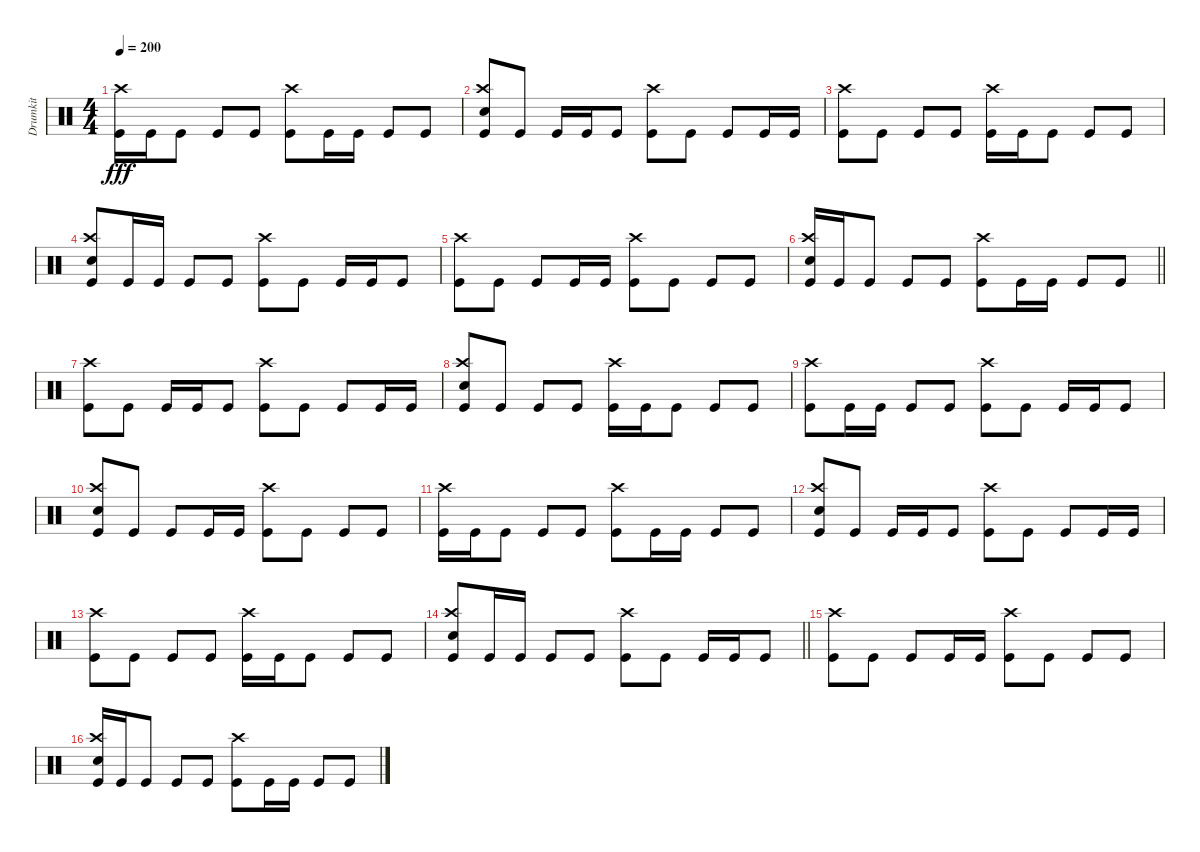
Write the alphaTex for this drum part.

\track ("Drumkit" "Drumkit") {instrument percussion}
\staff {score}
\articulation defaults
\ts (4 4)
\tempo 200
\clef neutral
\ks c
("Kick (hit)" "Crash high (hit)").16{dy fff} "Kick (hit)".16 "Kick (hit)".8 "Kick (hit)".8 "Kick (hit)".8 ("Kick (hit)" "Crash high (hit)").8 "Kick (hit)".16 "Kick (hit)".16 "Kick (hit)".8 "Kick (hit)".8 |
("Kick (hit)" "Snare (hit) 2" "Crash high (hit)").8 "Kick (hit)".8 "Kick (hit)".16 "Kick (hit)".16 "Kick (hit)".8 ("Kick (hit)" "Crash high (hit)").8 "Kick (hit)".8 "Kick (hit)".8 "Kick (hit)".16 "Kick (hit)".16 |
("Kick (hit)" "Crash high (hit)").8 "Kick (hit)".8 "Kick (hit)".8 "Kick (hit)".8 ("Kick (hit)" "Crash high (hit)").16 "Kick (hit)".16 "Kick (hit)".8 "Kick (hit)".8 "Kick (hit)".8 |
("Kick (hit)" "Crash high (hit)" "Snare (hit) 2").8 "Kick (hit)".16 "Kick (hit)".16 "Kick (hit)".8 "Kick (hit)".8 ("Kick (hit)" "Crash high (hit)").8 "Kick (hit)".8 "Kick (hit)".16 "Kick (hit)".16 "Kick (hit)".8 |
("Kick (hit)" "Crash high (hit)").8 "Kick (hit)".8 "Kick (hit)".8 "Kick (hit)".16 "Kick (hit)".16 ("Kick (hit)" "Crash high (hit)").8 "Kick (hit)".8 "Kick (hit)".8 "Kick (hit)".8 |
\barLineRight lightlight
("Kick (hit)" "Crash high (hit)" "Snare (hit) 2").16 "Kick (hit)".16 "Kick (hit)".8 "Kick (hit)".8 "Kick (hit)".8 ("Kick (hit)" "Crash high (hit)").8 "Kick (hit)".16 "Kick (hit)".16 "Kick (hit)".8 "Kick (hit)".8 |
("Kick (hit)" "Crash high (hit)").8 "Kick (hit)".8 "Kick (hit)".16 "Kick (hit)".16 "Kick (hit)".8 ("Kick (hit)" "Crash high (hit)").8 "Kick (hit)".8 "Kick (hit)".8 "Kick (hit)".16 "Kick (hit)".16 |
("Kick (hit)" "Crash high (hit)" "Snare (hit) 2").8 "Kick (hit)".8 "Kick (hit)".8 "Kick (hit)".8 ("Kick (hit)" "Crash high (hit)").16 "Kick (hit)".16 "Kick (hit)".8 "Kick (hit)".8 "Kick (hit)".8 |
("Kick (hit)" "Crash high (hit)").8 "Kick (hit)".16 "Kick (hit)".16 "Kick (hit)".8 "Kick (hit)".8 ("Kick (hit)" "Crash high (hit)").8 "Kick (hit)".8 "Kick (hit)".16 "Kick (hit)".16 "Kick (hit)".8 |
("Kick (hit)" "Crash high (hit)" "Snare (hit) 2").8 "Kick (hit)".8 "Kick (hit)".8 "Kick (hit)".16 "Kick (hit)".16 ("Kick (hit)" "Crash high (hit)").8 "Kick (hit)".8 "Kick (hit)".8 "Kick (hit)".8 |
("Kick (hit)" "Crash high (hit)").16 "Kick (hit)".16 "Kick (hit)".8 "Kick (hit)".8 "Kick (hit)".8 ("Kick (hit)" "Crash high (hit)").8 "Kick (hit)".16 "Kick (hit)".16 "Kick (hit)".8 "Kick (hit)".8 |
("Kick (hit)" "Snare (hit) 2" "Crash high (hit)").8 "Kick (hit)".8 "Kick (hit)".16 "Kick (hit)".16 "Kick (hit)".8 ("Kick (hit)" "Crash high (hit)").8 "Kick (hit)".8 "Kick (hit)".8 "Kick (hit)".16 "Kick (hit)".16 |
("Kick (hit)" "Crash high (hit)").8 "Kick (hit)".8 "Kick (hit)".8 "Kick (hit)".8 ("Kick (hit)" "Crash high (hit)").16 "Kick (hit)".16 "Kick (hit)".8 "Kick (hit)".8 "Kick (hit)".8 |
\barLineRight lightlight
("Kick (hit)" "Crash high (hit)" "Snare (hit) 2").8 "Kick (hit)".16 "Kick (hit)".16 "Kick (hit)".8 "Kick (hit)".8 ("Kick (hit)" "Crash high (hit)").8 "Kick (hit)".8 "Kick (hit)".16 "Kick (hit)".16 "Kick (hit)".8 |
("Kick (hit)" "Crash high (hit)").8 "Kick (hit)".8 "Kick (hit)".8 "Kick (hit)".16 "Kick (hit)".16 ("Kick (hit)" "Crash high (hit)").8 "Kick (hit)".8 "Kick (hit)".8 "Kick (hit)".8 |
("Kick (hit)" "Crash high (hit)" "Snare (hit) 2").16 "Kick (hit)".16 "Kick (hit)".8 "Kick (hit)".8 "Kick (hit)".8 ("Kick (hit)" "Crash high (hit)").8 "Kick (hit)".16 "Kick (hit)".16 "Kick (hit)".8 "Kick (hit)".8
